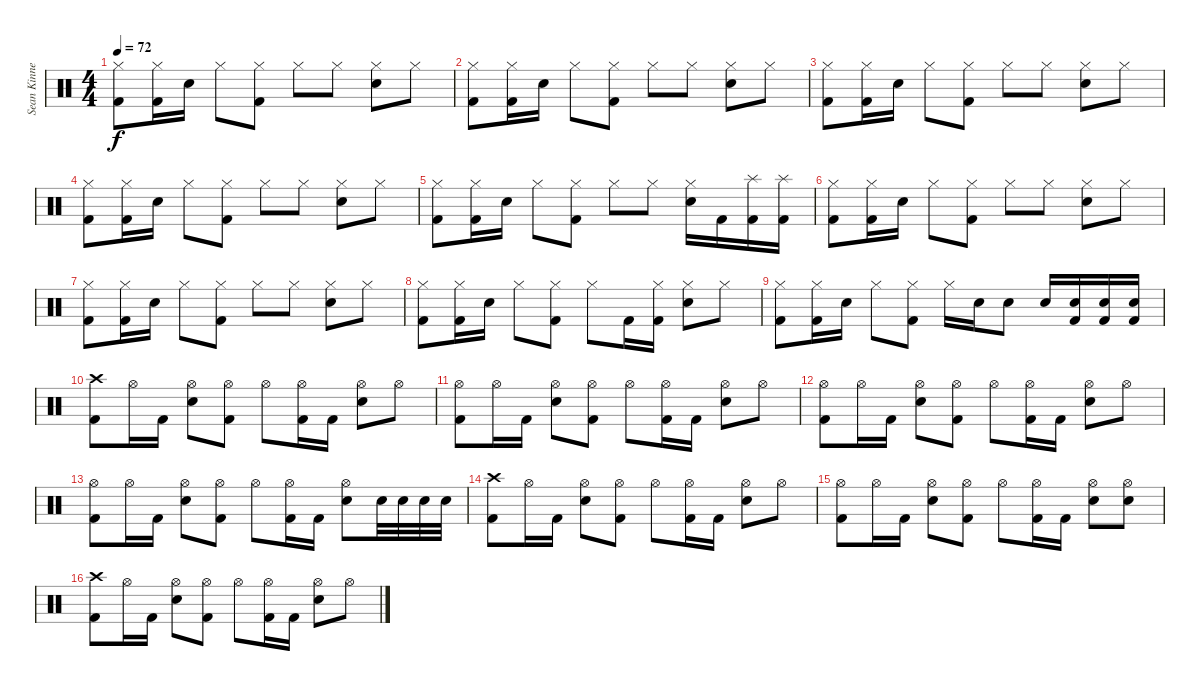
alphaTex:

\track ("Sean Kinney - Drums" "Sean Kinne") {instrument percussion}
\staff {score}
\articulation defaults
\ts (4 4)
\tempo 72
\clef neutral
\ks c
("Hi-Hat (closed)" "Kick (hit) 2").8{dy f} ("Hi-Hat (closed)" "Kick (hit) 2").16 "Electric Snare (hit)".16 "Hi-Hat (closed)".8 ("Hi-Hat (closed)" "Kick (hit) 2").8 "Hi-Hat (closed)".8 "Hi-Hat (closed)".8 ("Hi-Hat (closed)" "Electric Snare (hit)").8 "Hi-Hat (closed)".8 |
("Hi-Hat (closed)" "Kick (hit) 2").8 ("Hi-Hat (closed)" "Kick (hit) 2").16 "Electric Snare (hit)".16 "Hi-Hat (closed)".8 ("Hi-Hat (closed)" "Kick (hit) 2").8 "Hi-Hat (closed)".8 "Hi-Hat (closed)".8 ("Hi-Hat (closed)" "Electric Snare (hit)").8 "Hi-Hat (closed)".8 |
("Hi-Hat (closed)" "Kick (hit) 2").8 ("Hi-Hat (closed)" "Kick (hit) 2").16 "Electric Snare (hit)".16 "Hi-Hat (closed)".8 ("Hi-Hat (closed)" "Kick (hit) 2").8 "Hi-Hat (closed)".8 "Hi-Hat (closed)".8 ("Hi-Hat (closed)" "Electric Snare (hit)").8 "Hi-Hat (closed)".8 |
("Hi-Hat (closed)" "Kick (hit) 2").8 ("Hi-Hat (closed)" "Kick (hit) 2").16 "Electric Snare (hit)".16 "Hi-Hat (closed)".8 ("Hi-Hat (closed)" "Kick (hit) 2").8 "Hi-Hat (closed)".8 "Hi-Hat (closed)".8 ("Hi-Hat (closed)" "Electric Snare (hit)").8 "Hi-Hat (closed)".8 |
("Hi-Hat (closed)" "Kick (hit) 2").8 ("Hi-Hat (closed)" "Kick (hit) 2").16 "Electric Snare (hit)".16 "Hi-Hat (closed)".8 ("Hi-Hat (closed)" "Kick (hit) 2").8 "Hi-Hat (closed)".8 "Hi-Hat (closed)".8 ("Hi-Hat (closed)" "Electric Snare (hit)").16 "Kick (hit) 2".16 ("Splash (hit)" "Kick (hit) 2").16 ("Splash (hit)" "Kick (hit) 2").16 |
("Hi-Hat (closed)" "Kick (hit) 2").8 ("Hi-Hat (closed)" "Kick (hit) 2").16 "Electric Snare (hit)".16 "Hi-Hat (closed)".8 ("Hi-Hat (closed)" "Kick (hit) 2").8 "Hi-Hat (closed)".8 "Hi-Hat (closed)".8 ("Hi-Hat (closed)" "Electric Snare (hit)").8 "Hi-Hat (closed)".8 |
("Hi-Hat (closed)" "Kick (hit) 2").8 ("Hi-Hat (closed)" "Kick (hit) 2").16 "Electric Snare (hit)".16 "Hi-Hat (closed)".8 ("Hi-Hat (closed)" "Kick (hit) 2").8 "Hi-Hat (closed)".8 "Hi-Hat (closed)".8 ("Hi-Hat (closed)" "Electric Snare (hit)").8 "Hi-Hat (closed)".8 |
("Hi-Hat (closed)" "Kick (hit) 2").8 ("Hi-Hat (closed)" "Kick (hit) 2").16 "Electric Snare (hit)".16 "Hi-Hat (closed)".8 ("Hi-Hat (closed)" "Kick (hit) 2").8 "Hi-Hat (closed)".8 "Kick (hit) 2".16 ("Hi-Hat (closed)" "Kick (hit) 2").16 ("Hi-Hat (closed)" "Electric Snare (hit)").8 "Hi-Hat (closed)".8 |
("Hi-Hat (closed)" "Kick (hit) 2").8 ("Hi-Hat (closed)" "Kick (hit) 2").16 "Electric Snare (hit)".16 "Hi-Hat (closed)".8 ("Hi-Hat (closed)" "Kick (hit) 2").8 "Hi-Hat (closed)".16 "Electric Snare (hit)".16 "Electric Snare (hit)".8 "Electric Snare (hit)".16 ("Electric Snare (hit)" "Kick (hit) 2").16 ("Electric Snare (hit)" "Kick (hit) 2").16 ("Electric Snare (hit)" "Kick (hit) 2").16 |
("Crash high (hit)" "Kick (hit) 2").8 "Hi-Hat (open)".16 "Kick (hit) 2".16 ("Hi-Hat (open)" "Electric Snare (hit)").8 ("Hi-Hat (open)" "Kick (hit) 2").8 "Hi-Hat (open)".8 ("Hi-Hat (open)" "Kick (hit) 2").16 "Kick (hit) 2".16 ("Hi-Hat (open)" "Electric Snare (hit)").8 "Hi-Hat (open)".8 |
("Hi-Hat (open)" "Kick (hit) 2").8 "Hi-Hat (open)".16 "Kick (hit) 2".16 ("Hi-Hat (open)" "Electric Snare (hit)").8 ("Hi-Hat (open)" "Kick (hit) 2").8 "Hi-Hat (open)".8 ("Hi-Hat (open)" "Kick (hit) 2").16 "Kick (hit) 2".16 ("Hi-Hat (open)" "Electric Snare (hit)").8 "Hi-Hat (open)".8 |
("Hi-Hat (open)" "Kick (hit) 2").8 "Hi-Hat (open)".16 "Kick (hit) 2".16 ("Hi-Hat (open)" "Electric Snare (hit)").8 ("Hi-Hat (open)" "Kick (hit) 2").8 "Hi-Hat (open)".8 ("Hi-Hat (open)" "Kick (hit) 2").16 "Kick (hit) 2".16 ("Hi-Hat (open)" "Electric Snare (hit)").8 "Hi-Hat (open)".8 |
("Hi-Hat (open)" "Kick (hit) 2").8 "Hi-Hat (open)".16 "Kick (hit) 2".16 ("Hi-Hat (open)" "Electric Snare (hit)").8 ("Hi-Hat (open)" "Kick (hit) 2").8 "Hi-Hat (open)".8 ("Hi-Hat (open)" "Kick (hit) 2").16 "Kick (hit) 2".16 ("Hi-Hat (open)" "Electric Snare (hit)").8 "Electric Snare (hit)".32 "Electric Snare (hit)".32 "Electric Snare (hit)".32 "Electric Snare (hit)".32 |
("Crash high (hit)" "Kick (hit) 2").8 "Hi-Hat (open)".16 "Kick (hit) 2".16 ("Hi-Hat (open)" "Electric Snare (hit)").8 ("Hi-Hat (open)" "Kick (hit) 2").8 "Hi-Hat (open)".8 ("Hi-Hat (open)" "Kick (hit) 2").16 "Kick (hit) 2".16 ("Hi-Hat (open)" "Electric Snare (hit)").8 "Hi-Hat (open)".8 |
("Hi-Hat (open)" "Kick (hit) 2").8 "Hi-Hat (open)".16 "Kick (hit) 2".16 ("Hi-Hat (open)" "Electric Snare (hit)").8 ("Hi-Hat (open)" "Kick (hit) 2").8 "Hi-Hat (open)".8 ("Hi-Hat (open)" "Kick (hit) 2").16 "Kick (hit) 2".16 ("Hi-Hat (open)" "Electric Snare (hit)").8 ("Hi-Hat (open)" "Electric Snare (hit)").8 |
("Crash high (hit)" "Kick (hit) 2").8 "Hi-Hat (open)".16 "Kick (hit) 2".16 ("Hi-Hat (open)" "Electric Snare (hit)").8 ("Hi-Hat (open)" "Kick (hit) 2").8 "Hi-Hat (open)".8 ("Hi-Hat (open)" "Kick (hit) 2").16 "Kick (hit) 2".16 ("Hi-Hat (open)" "Electric Snare (hit)").8 "Hi-Hat (open)".8
